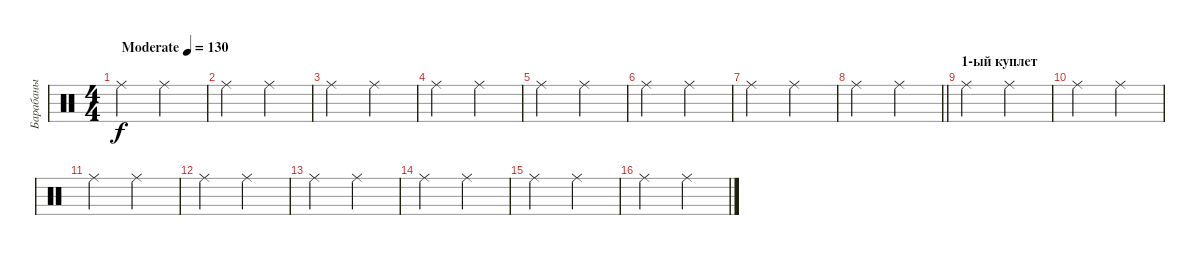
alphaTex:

\track ("Барабаны" "Барабаны") {instrument percussion}
\staff {score}
\articulation defaults
\ts (4 4)
\tempo (130 "Moderate")
\clef neutral
\ks c "Ride (middle)".2{dy f} "Ride (middle)".2
|
"Ride (middle)".2 "Ride (middle)".2 |
"Ride (middle)".2 "Ride (middle)".2 |
"Ride (middle)".2 "Ride (middle)".2 |
"Ride (middle)".2 "Ride (middle)".2 |
"Ride (middle)".2 "Ride (middle)".2 |
"Ride (middle)".2 "Ride (middle)".2 |
\barLineRight lightlight "Ride (middle)".2 "Ride (middle)".2
|
\section ("" "1-ый куплет")
"Ride (middle)".2 "Ride (middle)".2 |
"Ride (middle)".2 "Ride (middle)".2 |
"Ride (middle)".2 "Ride (middle)".2 |
"Ride (middle)".2 "Ride (middle)".2 |
"Ride (middle)".2 "Ride (middle)".2 |
"Ride (middle)".2 "Ride (middle)".2 |
"Ride (middle)".2 "Ride (middle)".2 |
"Ride (middle)".2 "Ride (middle)".2
